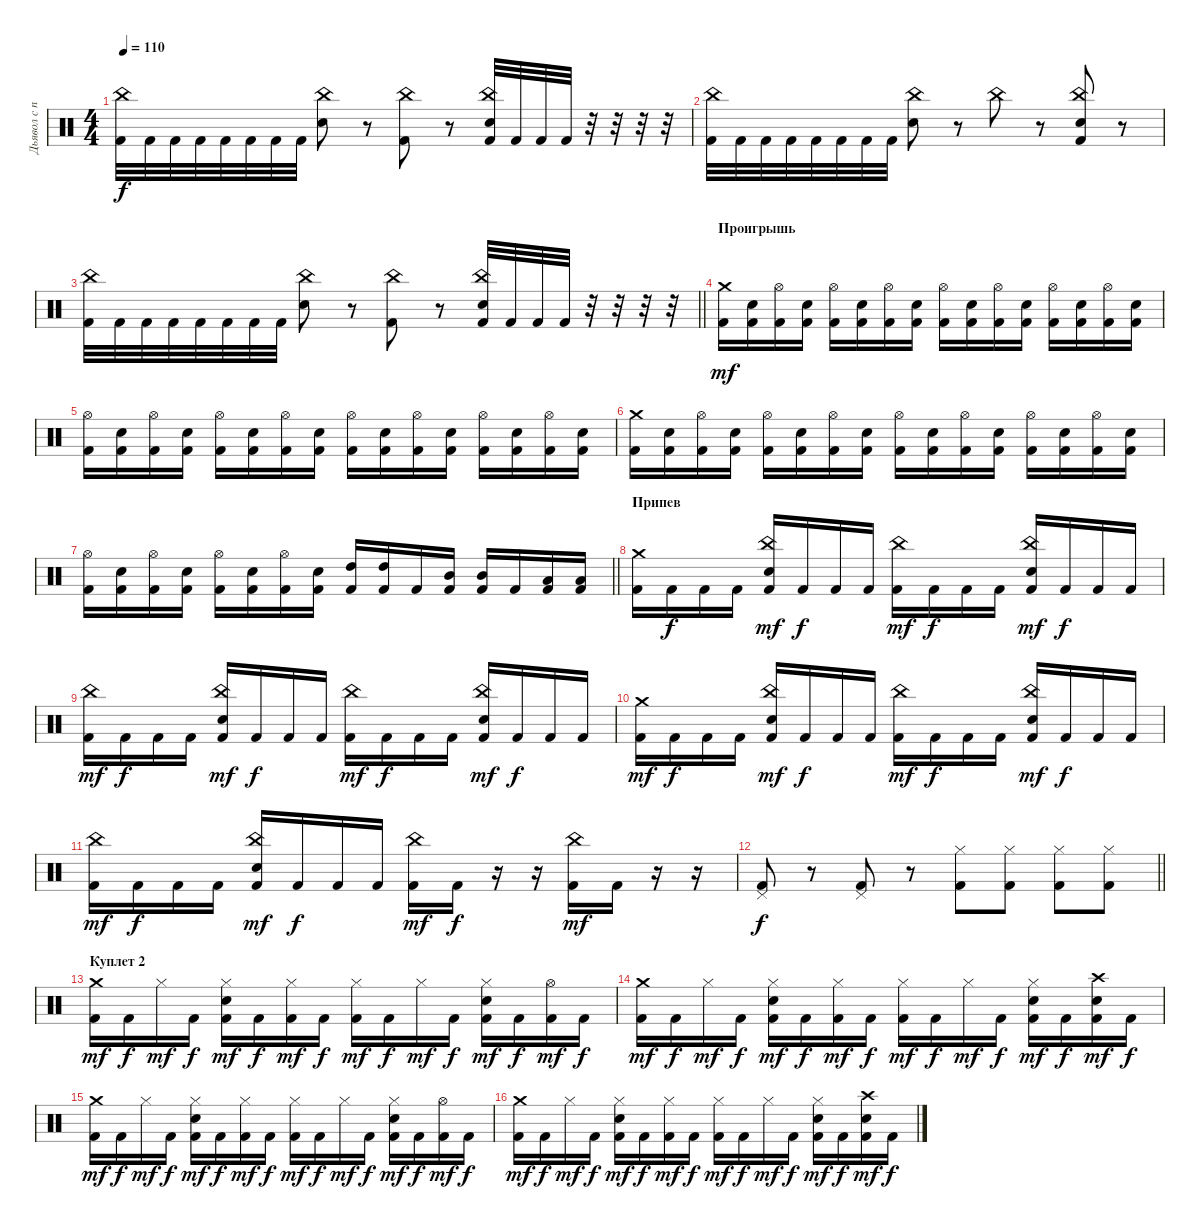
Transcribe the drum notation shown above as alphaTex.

\track ("Дьявол с палками" "Дьявол с п") {instrument percussion}
\staff {score}
\articulation defaults
\ts (4 4)
\tempo 110
\clef neutral
\ks c
("Kick (hit) 2" "China (hit)").32{dy f} "Kick (hit) 2".32 "Kick (hit) 2".32 "Kick (hit) 2".32 "Kick (hit) 2".32 "Kick (hit) 2".32 "Kick (hit) 2".32 "Kick (hit) 2".32 ("Snare (hit) 2" "China (hit)").8 r.8 ("China (hit)" "Kick (hit) 2").8 r.8 ("Kick (hit) 2" "China (hit)" "Snare (hit) 2").32 "Kick (hit) 2".32 "Kick (hit) 2".32 "Kick (hit) 2".32 r.32 r.32 r.32 r.32 |
("Kick (hit) 2" "China (hit)").32 "Kick (hit) 2".32 "Kick (hit) 2".32 "Kick (hit) 2".32 "Kick (hit) 2".32 "Kick (hit) 2".32 "Kick (hit) 2".32 "Kick (hit) 2".32 ("Snare (hit) 2" "China (hit)").8 r.8 "China (hit)".8 r.8 ("Kick (hit) 2" "China (hit)" "Snare (hit) 2").8 r.8 |
\barLineRight lightlight
("Kick (hit) 2" "China (hit)").32 "Kick (hit) 2".32 "Kick (hit) 2".32 "Kick (hit) 2".32 "Kick (hit) 2".32 "Kick (hit) 2".32 "Kick (hit) 2".32 "Kick (hit) 2".32 ("Snare (hit) 2" "China (hit)").8 r.8 ("China (hit)" "Kick (hit) 2").8 r.8 ("Kick (hit) 2" "China (hit)" "Snare (hit) 2").32 "Kick (hit) 2".32 "Kick (hit) 2".32 "Kick (hit) 2".32 r.32 r.32 r.32 r.32 |
\section ("" "Проигрышь")
("Kick (hit) 2" "Crash medium (hit)").16{dy mf} ("Kick (hit) 2" "Snare (hit) 2").16 ("Kick (hit) 2" "Hi-Hat (open)").16 ("Kick (hit) 2" "Snare (hit) 2").16 ("Kick (hit) 2" "Hi-Hat (open)").16 ("Kick (hit) 2" "Snare (hit) 2").16 ("Kick (hit) 2" "Hi-Hat (open)").16 ("Kick (hit) 2" "Snare (hit) 2").16 ("Kick (hit) 2" "Hi-Hat (open)").16 ("Kick (hit) 2" "Snare (hit) 2").16 ("Kick (hit) 2" "Hi-Hat (open)").16 ("Kick (hit) 2" "Snare (hit) 2").16 ("Kick (hit) 2" "Hi-Hat (open)").16 ("Kick (hit) 2" "Snare (hit) 2").16 ("Kick (hit) 2" "Hi-Hat (open)").16 ("Kick (hit) 2" "Snare (hit) 2").16 |
("Kick (hit) 2" "Hi-Hat (open)").16 ("Kick (hit) 2" "Snare (hit) 2").16 ("Kick (hit) 2" "Hi-Hat (open)").16 ("Kick (hit) 2" "Snare (hit) 2").16 ("Kick (hit) 2" "Hi-Hat (open)").16 ("Kick (hit) 2" "Snare (hit) 2").16 ("Kick (hit) 2" "Hi-Hat (open)").16 ("Kick (hit) 2" "Snare (hit) 2").16 ("Kick (hit) 2" "Hi-Hat (open)").16 ("Kick (hit) 2" "Snare (hit) 2").16 ("Kick (hit) 2" "Hi-Hat (open)").16 ("Kick (hit) 2" "Snare (hit) 2").16 ("Kick (hit) 2" "Hi-Hat (open)").16 ("Kick (hit) 2" "Snare (hit) 2").16 ("Kick (hit) 2" "Hi-Hat (open)").16 ("Kick (hit) 2" "Snare (hit) 2").16 |
("Kick (hit) 2" "Crash medium (hit)").16 ("Kick (hit) 2" "Snare (hit) 2").16 ("Kick (hit) 2" "Hi-Hat (open)").16 ("Kick (hit) 2" "Snare (hit) 2").16 ("Kick (hit) 2" "Hi-Hat (open)").16 ("Kick (hit) 2" "Snare (hit) 2").16 ("Kick (hit) 2" "Hi-Hat (open)").16 ("Kick (hit) 2" "Snare (hit) 2").16 ("Kick (hit) 2" "Hi-Hat (open)").16 ("Kick (hit) 2" "Snare (hit) 2").16 ("Kick (hit) 2" "Hi-Hat (open)").16 ("Kick (hit) 2" "Snare (hit) 2").16 ("Kick (hit) 2" "Hi-Hat (open)").16 ("Kick (hit) 2" "Snare (hit) 2").16 ("Kick (hit) 2" "Hi-Hat (open)").16 ("Kick (hit) 2" "Snare (hit) 2").16 |
\barLineRight lightlight
("Kick (hit) 2" "Hi-Hat (open)").16 ("Kick (hit) 2" "Snare (hit) 2").16 ("Kick (hit) 2" "Hi-Hat (open)").16 ("Kick (hit) 2" "Snare (hit) 2").16 ("Kick (hit) 2" "Hi-Hat (open)").16 ("Kick (hit) 2" "Snare (hit) 2").16 ("Kick (hit) 2" "Hi-Hat (open)").16 ("Kick (hit) 2" "Snare (hit) 2").16 ("Kick (hit) 2" "High Tom (hit)").16 ("Kick (hit) 2" "High Tom (hit)").16 "Kick (hit) 2".16 ("Kick (hit) 2" "Mid Tom (hit)").16 ("Kick (hit) 2" "Mid Tom (hit)").16 "Kick (hit) 2".16 ("Kick (hit) 2" "Low Tom (hit)").16 ("Kick (hit) 2" "Low Tom (hit)").16 |
\section ("" "Припев")
("Kick (hit) 2" "Crash medium (hit)").16 "Kick (hit) 2".16{dy f} "Kick (hit) 2".16 "Kick (hit) 2".16 ("Kick (hit) 2" "Snare (hit) 2" "China (hit)").16{dy mf} "Kick (hit) 2".16{dy f} "Kick (hit) 2".16 "Kick (hit) 2".16 ("Kick (hit) 2" "China (hit)").16{dy mf} "Kick (hit) 2".16{dy f} "Kick (hit) 2".16 "Kick (hit) 2".16 ("Kick (hit) 2" "Snare (hit) 2" "China (hit)").16{dy mf} "Kick (hit) 2".16{dy f} "Kick (hit) 2".16 "Kick (hit) 2".16 |
("Kick (hit) 2" "China (hit)").16{dy mf} "Kick (hit) 2".16{dy f} "Kick (hit) 2".16 "Kick (hit) 2".16 ("Kick (hit) 2" "Snare (hit) 2" "China (hit)").16{dy mf} "Kick (hit) 2".16{dy f} "Kick (hit) 2".16 "Kick (hit) 2".16 ("Kick (hit) 2" "China (hit)").16{dy mf} "Kick (hit) 2".16{dy f} "Kick (hit) 2".16 "Kick (hit) 2".16 ("Kick (hit) 2" "Snare (hit) 2" "China (hit)").16{dy mf} "Kick (hit) 2".16{dy f} "Kick (hit) 2".16 "Kick (hit) 2".16 |
("Kick (hit) 2" "Crash medium (hit)").16{dy mf} "Kick (hit) 2".16{dy f} "Kick (hit) 2".16 "Kick (hit) 2".16 ("Kick (hit) 2" "Snare (hit) 2" "China (hit)").16{dy mf} "Kick (hit) 2".16{dy f} "Kick (hit) 2".16 "Kick (hit) 2".16 ("Kick (hit) 2" "China (hit)").16{dy mf} "Kick (hit) 2".16{dy f} "Kick (hit) 2".16 "Kick (hit) 2".16 ("Kick (hit) 2" "Snare (hit) 2" "China (hit)").16{dy mf} "Kick (hit) 2".16{dy f} "Kick (hit) 2".16 "Kick (hit) 2".16 |
("Kick (hit) 2" "China (hit)").16{dy mf} "Kick (hit) 2".16{dy f} "Kick (hit) 2".16 "Kick (hit) 2".16 ("Kick (hit) 2" "Snare (hit) 2" "China (hit)").16{dy mf} "Kick (hit) 2".16{dy f} "Kick (hit) 2".16 "Kick (hit) 2".16 ("Kick (hit) 2" "China (hit)").16{dy mf} "Kick (hit) 2".16{dy f} r.16 r.16 ("Kick (hit) 2" "China (hit)").16{dy mf} "Kick (hit) 2".16 r.16 r.16 |
\barLineRight lightlight
("Kick (hit) 2" "Pedal Hi-Hat (hit)").8{dy f} r.8 ("Kick (hit) 2" "Pedal Hi-Hat (hit)").8 r.8 ("Kick (hit) 2" "Hi-Hat (closed)").8 ("Kick (hit) 2" "Hi-Hat (closed)").8 ("Kick (hit) 2" "Hi-Hat (closed)").8 ("Kick (hit) 2" "Hi-Hat (closed)").8 |
\section ("" "Куплет 2")
("Kick (hit) 2" "Crash medium (hit)").16{dy mf} "Kick (hit) 2".16{dy f} "Hi-Hat (closed)".16{dy mf} "Kick (hit) 2".16{dy f} ("Kick (hit) 2" "Snare (hit) 2" "Hi-Hat (closed)").16{dy mf} "Kick (hit) 2".16{dy f} ("Kick (hit) 2" "Hi-Hat (closed)").16{dy mf} "Kick (hit) 2".16{dy f} ("Kick (hit) 2" "Hi-Hat (closed)").16{dy mf} "Kick (hit) 2".16{dy f} "Hi-Hat (closed)".16{dy mf} "Kick (hit) 2".16{dy f} ("Kick (hit) 2" "Snare (hit) 2" "Hi-Hat (closed)").16{dy mf} "Kick (hit) 2".16{dy f} ("Kick (hit) 2" "Hi-Hat (open)").16{dy mf} "Kick (hit) 2".16{dy f} |
("Kick (hit) 2" "Crash medium (hit)").16{dy mf} "Kick (hit) 2".16{dy f} "Hi-Hat (closed)".16{dy mf} "Kick (hit) 2".16{dy f} ("Kick (hit) 2" "Snare (hit) 2" "Hi-Hat (closed)").16{dy mf} "Kick (hit) 2".16{dy f} ("Kick (hit) 2" "Hi-Hat (closed)").16{dy mf} "Kick (hit) 2".16{dy f} ("Kick (hit) 2" "Hi-Hat (closed)").16{dy mf} "Kick (hit) 2".16{dy f} "Hi-Hat (closed)".16{dy mf} "Kick (hit) 2".16{dy f} ("Kick (hit) 2" "Snare (hit) 2" "Hi-Hat (closed)").16{dy mf} "Kick (hit) 2".16{dy f} ("Kick (hit) 2" "Snare (hit) 2" "Crash high (hit)").16{dy mf} "Kick (hit) 2".16{dy f} |
("Kick (hit) 2" "Crash medium (hit)").16{dy mf} "Kick (hit) 2".16{dy f} "Hi-Hat (closed)".16{dy mf} "Kick (hit) 2".16{dy f} ("Kick (hit) 2" "Snare (hit) 2" "Hi-Hat (closed)").16{dy mf} "Kick (hit) 2".16{dy f} ("Kick (hit) 2" "Hi-Hat (closed)").16{dy mf} "Kick (hit) 2".16{dy f} ("Kick (hit) 2" "Hi-Hat (closed)").16{dy mf} "Kick (hit) 2".16{dy f} "Hi-Hat (closed)".16{dy mf} "Kick (hit) 2".16{dy f} ("Kick (hit) 2" "Snare (hit) 2" "Hi-Hat (closed)").16{dy mf} "Kick (hit) 2".16{dy f} ("Kick (hit) 2" "Hi-Hat (open)").16{dy mf} "Kick (hit) 2".16{dy f} |
("Kick (hit) 2" "Crash medium (hit)").16{dy mf} "Kick (hit) 2".16{dy f} "Hi-Hat (closed)".16{dy mf} "Kick (hit) 2".16{dy f} ("Kick (hit) 2" "Snare (hit) 2" "Hi-Hat (closed)").16{dy mf} "Kick (hit) 2".16{dy f} ("Kick (hit) 2" "Hi-Hat (closed)").16{dy mf} "Kick (hit) 2".16{dy f} ("Kick (hit) 2" "Hi-Hat (closed)").16{dy mf} "Kick (hit) 2".16{dy f} "Hi-Hat (closed)".16{dy mf} "Kick (hit) 2".16{dy f} ("Kick (hit) 2" "Snare (hit) 2" "Hi-Hat (closed)").16{dy mf} "Kick (hit) 2".16{dy f} ("Kick (hit) 2" "Snare (hit) 2" "Crash high (hit)").16{dy mf} "Kick (hit) 2".16{dy f}
